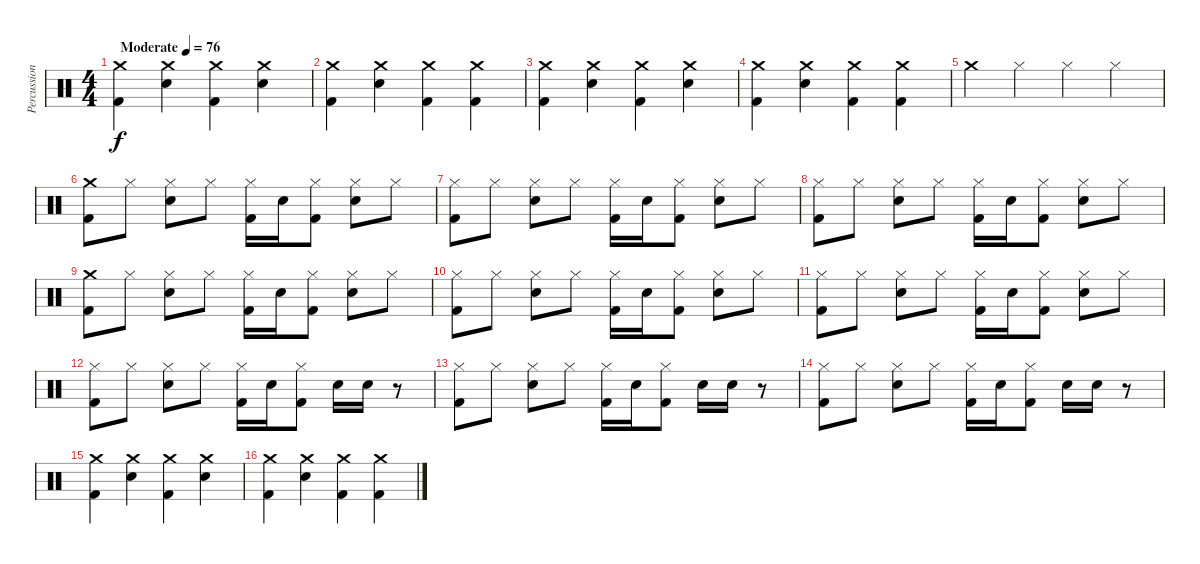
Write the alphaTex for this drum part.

\track ("Percussion" "Percussion") {instrument percussion}
\staff {score}
\articulation defaults
\ts (4 4)
\tempo (76 "Moderate")
\clef neutral
\ks c
("Crash medium (hit)" "Kick (hit) 2").4{dy f} ("Crash medium (hit)" "Snare (hit) 2").4 ("Crash medium (hit)" "Kick (hit) 2").4 ("Crash medium (hit)" "Snare (hit) 2").4 |
("Crash medium (hit)" "Kick (hit) 2").4 ("Crash medium (hit)" "Snare (hit) 2").4 ("Crash medium (hit)" "Kick (hit) 2").4 ("Crash medium (hit)" "Kick (hit) 2").4 |
("Crash medium (hit)" "Kick (hit) 2").4 ("Crash medium (hit)" "Snare (hit) 2").4 ("Crash medium (hit)" "Kick (hit) 2").4 ("Crash medium (hit)" "Snare (hit) 2").4 |
("Crash medium (hit)" "Kick (hit) 2").4 ("Crash medium (hit)" "Snare (hit) 2").4 ("Crash medium (hit)" "Kick (hit) 2").4 ("Crash medium (hit)" "Kick (hit) 2").4 |
"Crash medium (hit)".4 "Hi-Hat (closed)".4 "Hi-Hat (closed)".4 "Hi-Hat (closed)".4 |
("Crash medium (hit)" "Kick (hit) 2").8 "Hi-Hat (closed)".8 ("Hi-Hat (closed)" "Snare (hit) 2").8 "Hi-Hat (closed)".8 ("Hi-Hat (closed)" "Kick (hit) 2").16 "Snare (hit) 2".16 ("Hi-Hat (closed)" "Kick (hit) 2").8 ("Hi-Hat (closed)" "Snare (hit) 2").8 "Hi-Hat (closed)".8 |
("Hi-Hat (closed)" "Kick (hit) 2").8 "Hi-Hat (closed)".8 ("Hi-Hat (closed)" "Snare (hit) 2").8 "Hi-Hat (closed)".8 ("Hi-Hat (closed)" "Kick (hit) 2").16 "Snare (hit) 2".16 ("Hi-Hat (closed)" "Kick (hit) 2").8 ("Hi-Hat (closed)" "Snare (hit) 2").8 "Hi-Hat (closed)".8 |
("Hi-Hat (closed)" "Kick (hit) 2").8 "Hi-Hat (closed)".8 ("Hi-Hat (closed)" "Snare (hit) 2").8 "Hi-Hat (closed)".8 ("Hi-Hat (closed)" "Kick (hit) 2").16 "Snare (hit) 2".16 ("Hi-Hat (closed)" "Kick (hit) 2").8 ("Hi-Hat (closed)" "Snare (hit) 2").8 "Hi-Hat (closed)".8 |
("Crash medium (hit)" "Kick (hit) 2").8 "Hi-Hat (closed)".8 ("Hi-Hat (closed)" "Snare (hit) 2").8 "Hi-Hat (closed)".8 ("Hi-Hat (closed)" "Kick (hit) 2").16 "Snare (hit) 2".16 ("Hi-Hat (closed)" "Kick (hit) 2").8 ("Hi-Hat (closed)" "Snare (hit) 2").8 "Hi-Hat (closed)".8 |
("Hi-Hat (closed)" "Kick (hit) 2").8 "Hi-Hat (closed)".8 ("Hi-Hat (closed)" "Snare (hit) 2").8 "Hi-Hat (closed)".8 ("Hi-Hat (closed)" "Kick (hit) 2").16 "Snare (hit) 2".16 ("Hi-Hat (closed)" "Kick (hit) 2").8 ("Hi-Hat (closed)" "Snare (hit) 2").8 "Hi-Hat (closed)".8 |
("Hi-Hat (closed)" "Kick (hit) 2").8 "Hi-Hat (closed)".8 ("Hi-Hat (closed)" "Snare (hit) 2").8 "Hi-Hat (closed)".8 ("Hi-Hat (closed)" "Kick (hit) 2").16 "Snare (hit) 2".16 ("Hi-Hat (closed)" "Kick (hit) 2").8 ("Hi-Hat (closed)" "Snare (hit) 2").8 "Hi-Hat (closed)".8 |
("Hi-Hat (closed)" "Kick (hit) 2").8 "Hi-Hat (closed)".8 ("Hi-Hat (closed)" "Snare (hit) 2").8 "Hi-Hat (closed)".8 ("Hi-Hat (closed)" "Kick (hit) 2").16 "Snare (hit) 2".16 ("Hi-Hat (closed)" "Kick (hit) 2").8 "Snare (hit) 2".16 "Snare (hit) 2".16 r.8 |
("Hi-Hat (closed)" "Kick (hit) 2").8 "Hi-Hat (closed)".8 ("Hi-Hat (closed)" "Snare (hit) 2").8 "Hi-Hat (closed)".8 ("Hi-Hat (closed)" "Kick (hit) 2").16 "Snare (hit) 2".16 ("Hi-Hat (closed)" "Kick (hit) 2").8 "Snare (hit) 2".16 "Snare (hit) 2".16 r.8 |
("Hi-Hat (closed)" "Kick (hit) 2").8 "Hi-Hat (closed)".8 ("Hi-Hat (closed)" "Snare (hit) 2").8 "Hi-Hat (closed)".8 ("Hi-Hat (closed)" "Kick (hit) 2").16 "Snare (hit) 2".16 ("Hi-Hat (closed)" "Kick (hit) 2").8 "Snare (hit) 2".16 "Snare (hit) 2".16 r.8 |
("Crash medium (hit)" "Kick (hit) 2").4 ("Crash medium (hit)" "Snare (hit) 2").4 ("Crash medium (hit)" "Kick (hit) 2").4 ("Crash medium (hit)" "Snare (hit) 2").4 |
("Crash medium (hit)" "Kick (hit) 2").4 ("Crash medium (hit)" "Snare (hit) 2").4 ("Crash medium (hit)" "Kick (hit) 2").4 ("Crash medium (hit)" "Kick (hit) 2").4
